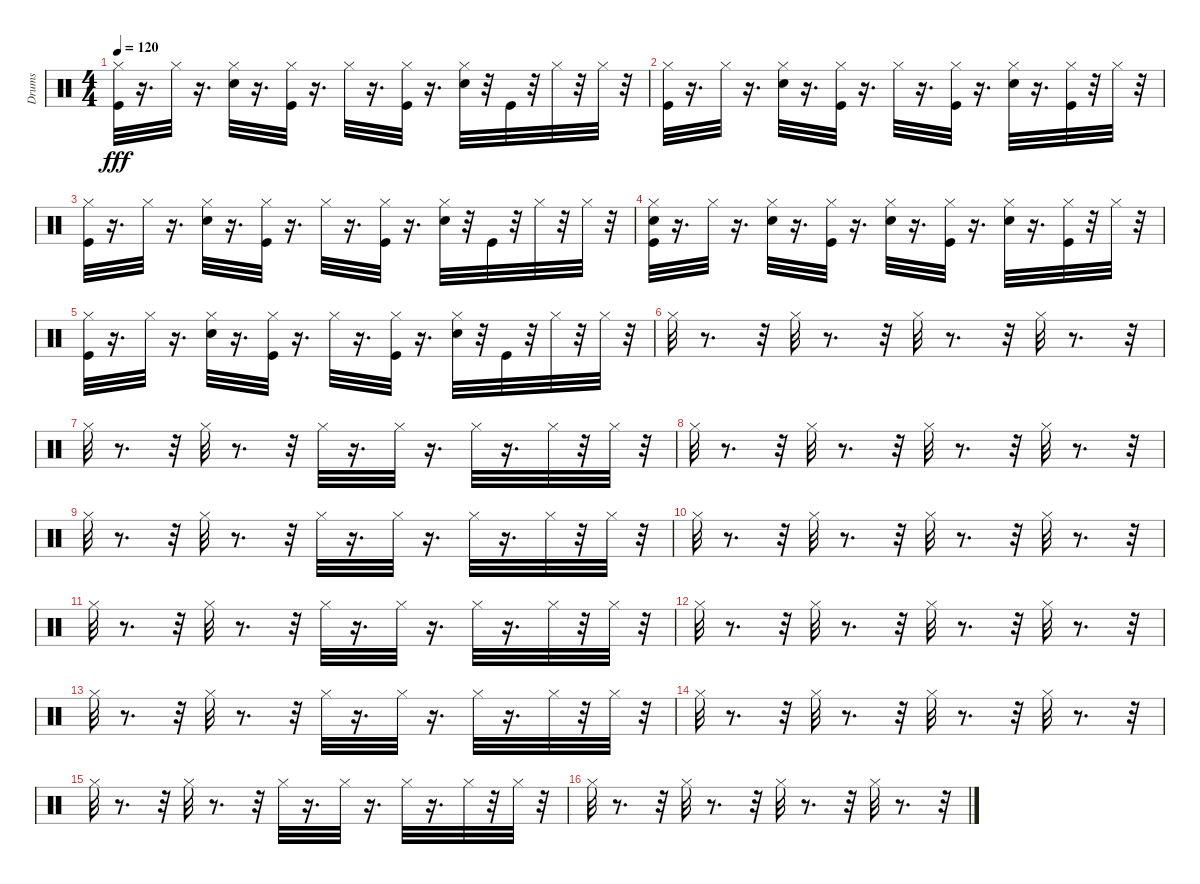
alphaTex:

\track ("Drums" "Drums") {solo instrument percussion}
\staff {score}
\articulation defaults
\ts (4 4)
\tempo 120
\clef neutral
\ks c
("Kick (hit)" "Hi-Hat (closed)").32{dy fff} r.16{d} "Hi-Hat (closed)".32 r.16{d} ("Snare (hit) 2" "Hi-Hat (closed)").32 r.16{d} ("Kick (hit)" "Hi-Hat (closed)").32 r.16{d} "Hi-Hat (closed)".32 r.16{d} ("Kick (hit)" "Hi-Hat (closed)").32 r.16{d} ("Snare (hit) 2" "Hi-Hat (closed)").32 r.32 "Kick (hit)".32 r.32 "Hi-Hat (closed)".32 r.32 "Hi-Hat (closed)".32 r.32 |
("Kick (hit)" "Hi-Hat (closed)").32 r.16{d} "Hi-Hat (closed)".32 r.16{d} ("Snare (hit) 2" "Hi-Hat (closed)").32 r.16{d} ("Kick (hit)" "Hi-Hat (closed)").32 r.16{d} "Hi-Hat (closed)".32 r.16{d} ("Kick (hit)" "Hi-Hat (closed)").32 r.16{d} ("Snare (hit) 2" "Hi-Hat (closed)").32 r.16{d} ("Kick (hit)" "Hi-Hat (closed)").32 r.32 "Hi-Hat (closed)".32 r.32 |
("Kick (hit)" "Hi-Hat (closed)").32 r.16{d} "Hi-Hat (closed)".32 r.16{d} ("Snare (hit) 2" "Hi-Hat (closed)").32 r.16{d} ("Kick (hit)" "Hi-Hat (closed)").32 r.16{d} "Hi-Hat (closed)".32 r.16{d} ("Kick (hit)" "Hi-Hat (closed)").32 r.16{d} ("Snare (hit) 2" "Hi-Hat (closed)").32 r.32 "Kick (hit)".32 r.32 "Hi-Hat (closed)".32 r.32 "Hi-Hat (closed)".32 r.32 |
("Kick (hit)" "Snare (hit) 2" "Hi-Hat (closed)").32 r.16{d} "Hi-Hat (closed)".32 r.16{d} ("Snare (hit) 2" "Hi-Hat (closed)").32 r.16{d} ("Kick (hit)" "Hi-Hat (closed)").32 r.16{d} ("Snare (hit) 2" "Hi-Hat (closed)").32 r.16{d} ("Kick (hit)" "Hi-Hat (closed)").32 r.16{d} ("Snare (hit) 2" "Hi-Hat (closed)").32 r.16{d} ("Kick (hit)" "Hi-Hat (closed)").32 r.32 "Hi-Hat (closed)".32 r.32 |
("Kick (hit)" "Hi-Hat (closed)").32 r.16{d} "Hi-Hat (closed)".32 r.16{d} ("Snare (hit) 2" "Hi-Hat (closed)").32 r.16{d} ("Kick (hit)" "Hi-Hat (closed)").32 r.16{d} "Hi-Hat (closed)".32 r.16{d} ("Kick (hit)" "Hi-Hat (closed)").32 r.16{d} ("Snare (hit) 2" "Hi-Hat (closed)").32 r.32 "Kick (hit)".32 r.32 "Hi-Hat (closed)".32 r.32 "Hi-Hat (closed)".32 r.32 |
"Hi-Hat (closed)".32 r.8{d} r.32 "Hi-Hat (closed)".32 r.8{d} r.32 "Hi-Hat (closed)".32 r.8{d} r.32 "Hi-Hat (closed)".32 r.8{d} r.32 |
"Hi-Hat (closed)".32 r.8{d} r.32 "Hi-Hat (closed)".32 r.8{d} r.32 "Hi-Hat (closed)".32 r.16{d} "Hi-Hat (closed)".32 r.16{d} "Hi-Hat (closed)".32 r.16{d} "Hi-Hat (closed)".32 r.32 "Hi-Hat (closed)".32 r.32 |
"Hi-Hat (closed)".32 r.8{d} r.32 "Hi-Hat (closed)".32 r.8{d} r.32 "Hi-Hat (closed)".32 r.8{d} r.32 "Hi-Hat (closed)".32 r.8{d} r.32 |
"Hi-Hat (closed)".32 r.8{d} r.32 "Hi-Hat (closed)".32 r.8{d} r.32 "Hi-Hat (closed)".32 r.16{d} "Hi-Hat (closed)".32 r.16{d} "Hi-Hat (closed)".32 r.16{d} "Hi-Hat (closed)".32 r.32 "Hi-Hat (closed)".32 r.32 |
"Hi-Hat (closed)".32 r.8{d} r.32 "Hi-Hat (closed)".32 r.8{d} r.32 "Hi-Hat (closed)".32 r.8{d} r.32 "Hi-Hat (closed)".32 r.8{d} r.32 |
"Hi-Hat (closed)".32 r.8{d} r.32 "Hi-Hat (closed)".32 r.8{d} r.32 "Hi-Hat (closed)".32 r.16{d} "Hi-Hat (closed)".32 r.16{d} "Hi-Hat (closed)".32 r.16{d} "Hi-Hat (closed)".32 r.32 "Hi-Hat (closed)".32 r.32 |
"Hi-Hat (closed)".32 r.8{d} r.32 "Hi-Hat (closed)".32 r.8{d} r.32 "Hi-Hat (closed)".32 r.8{d} r.32 "Hi-Hat (closed)".32 r.8{d} r.32 |
"Hi-Hat (closed)".32 r.8{d} r.32 "Hi-Hat (closed)".32 r.8{d} r.32 "Hi-Hat (closed)".32 r.16{d} "Hi-Hat (closed)".32 r.16{d} "Hi-Hat (closed)".32 r.16{d} "Hi-Hat (closed)".32 r.32 "Hi-Hat (closed)".32 r.32 |
"Hi-Hat (closed)".32 r.8{d} r.32 "Hi-Hat (closed)".32 r.8{d} r.32 "Hi-Hat (closed)".32 r.8{d} r.32 "Hi-Hat (closed)".32 r.8{d} r.32 |
"Hi-Hat (closed)".32 r.8{d} r.32 "Hi-Hat (closed)".32 r.8{d} r.32 "Hi-Hat (closed)".32 r.16{d} "Hi-Hat (closed)".32 r.16{d} "Hi-Hat (closed)".32 r.16{d} "Hi-Hat (closed)".32 r.32 "Hi-Hat (closed)".32 r.32 |
"Hi-Hat (closed)".32 r.8{d} r.32 "Hi-Hat (closed)".32 r.8{d} r.32 "Hi-Hat (closed)".32 r.8{d} r.32 "Hi-Hat (closed)".32 r.8{d} r.32
